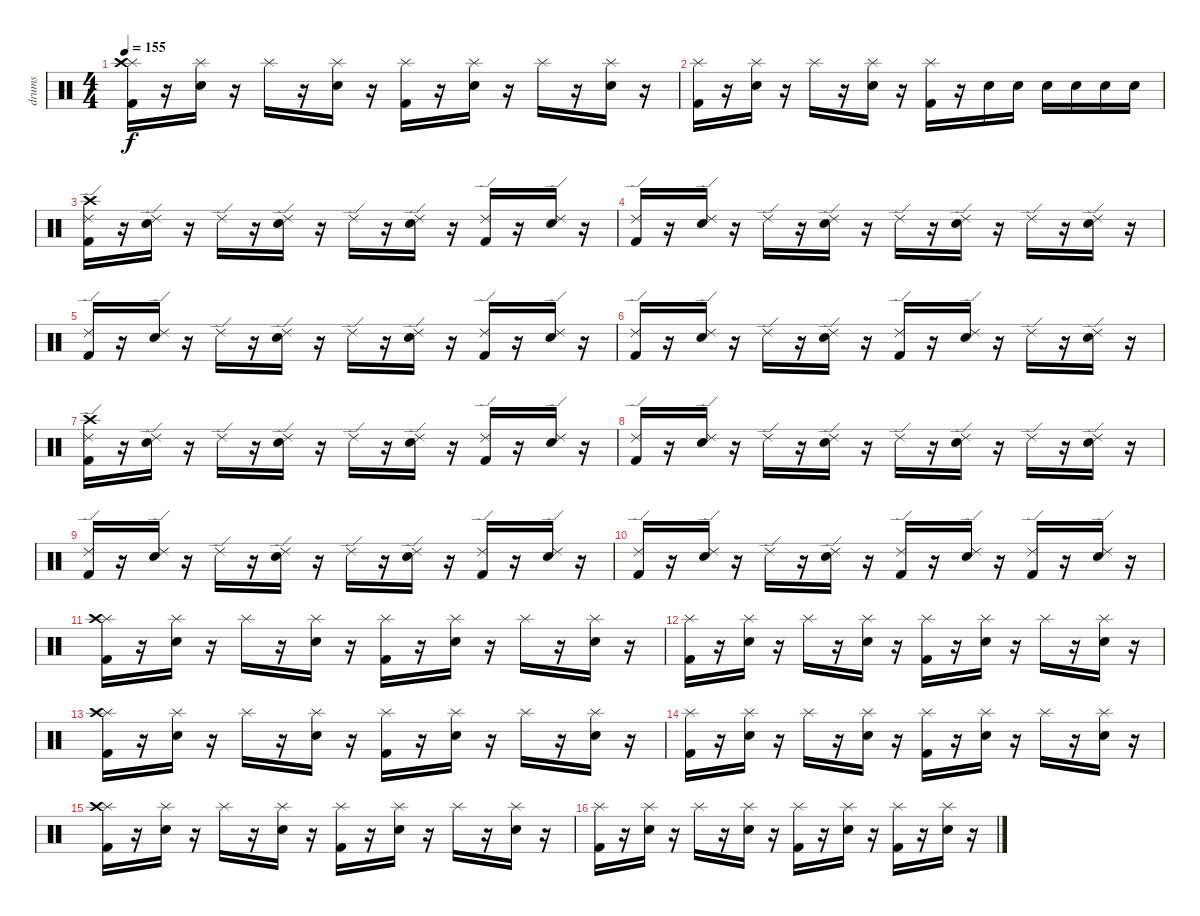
\track ("drums" "drums") {instrument percussion}
\staff {score}
\articulation defaults
\ts (4 4)
\tempo 155
\clef neutral
\ks c
("Splash (hit)" "Crash high (hit)" "Kick (hit) 2").16{dy f} r.16 ("Splash (hit)" "Snare (hit) 2").16 r.16 "Splash (hit)".16 r.16 ("Splash (hit)" "Snare (hit) 2").16 r.16 ("Splash (hit)" "Kick (hit) 2").16 r.16 ("Splash (hit)" "Snare (hit) 2").16 r.16 "Splash (hit)".16 r.16 ("Splash (hit)" "Snare (hit) 2").16 r.16 |
("Splash (hit)" "Kick (hit) 2").16 r.16 ("Splash (hit)" "Snare (hit) 2").16 r.16 "Splash (hit)".16 r.16 ("Splash (hit)" "Snare (hit) 2").16 r.16 ("Splash (hit)" "Kick (hit) 2").16 r.16 "Snare (hit) 2".16 "Snare (hit) 2".16 "Snare (hit) 2".16 "Snare (hit) 2".16 "Snare (hit) 2".16 "Snare (hit) 2".16 |
("Ride (edge) 2" "Crash high (hit)" "Kick (hit) 2").16 r.16 ("Ride (edge) 2" "Snare (hit) 2").16 r.16 "Ride (edge) 2".16 r.16 ("Ride (edge) 2" "Snare (hit) 2").16 r.16 "Ride (edge) 2".16 r.16 ("Ride (edge) 2" "Snare (hit) 2").16 r.16 ("Ride (edge) 2" "Kick (hit) 2").16 r.16 ("Ride (edge) 2" "Snare (hit) 2").16 r.16 |
("Ride (edge) 2" "Kick (hit) 2").16 r.16 ("Ride (edge) 2" "Snare (hit) 2").16 r.16 "Ride (edge) 2".16 r.16 ("Ride (edge) 2" "Snare (hit) 2").16 r.16 "Ride (edge) 2".16 r.16 ("Ride (edge) 2" "Snare (hit) 2").16 r.16 "Ride (edge) 2".16 r.16 ("Ride (edge) 2" "Snare (hit) 2").16 r.16 |
("Ride (edge) 2" "Kick (hit) 2").16 r.16 ("Ride (edge) 2" "Snare (hit) 2").16 r.16 "Ride (edge) 2".16 r.16 ("Ride (edge) 2" "Snare (hit) 2").16 r.16 "Ride (edge) 2".16 r.16 ("Ride (edge) 2" "Snare (hit) 2").16 r.16 ("Ride (edge) 2" "Kick (hit) 2").16 r.16 ("Ride (edge) 2" "Snare (hit) 2").16 r.16 |
("Ride (edge) 2" "Kick (hit) 2").16 r.16 ("Ride (edge) 2" "Snare (hit) 2").16 r.16 "Ride (edge) 2".16 r.16 ("Ride (edge) 2" "Snare (hit) 2").16 r.16 ("Ride (edge) 2" "Kick (hit) 2").16 r.16 ("Ride (edge) 2" "Snare (hit) 2").16 r.16 "Ride (edge) 2".16 r.16 ("Ride (edge) 2" "Snare (hit) 2").16 r.16 |
("Ride (edge) 2" "Crash high (hit)" "Kick (hit) 2").16 r.16 ("Ride (edge) 2" "Snare (hit) 2").16 r.16 "Ride (edge) 2".16 r.16 ("Ride (edge) 2" "Snare (hit) 2").16 r.16 "Ride (edge) 2".16 r.16 ("Ride (edge) 2" "Snare (hit) 2").16 r.16 ("Ride (edge) 2" "Kick (hit) 2").16 r.16 ("Ride (edge) 2" "Snare (hit) 2").16 r.16 |
("Ride (edge) 2" "Kick (hit) 2").16 r.16 ("Ride (edge) 2" "Snare (hit) 2").16 r.16 "Ride (edge) 2".16 r.16 ("Ride (edge) 2" "Snare (hit) 2").16 r.16 "Ride (edge) 2".16 r.16 ("Ride (edge) 2" "Snare (hit) 2").16 r.16 "Ride (edge) 2".16 r.16 ("Ride (edge) 2" "Snare (hit) 2").16 r.16 |
("Ride (edge) 2" "Kick (hit) 2").16 r.16 ("Ride (edge) 2" "Snare (hit) 2").16 r.16 "Ride (edge) 2".16 r.16 ("Ride (edge) 2" "Snare (hit) 2").16 r.16 "Ride (edge) 2".16 r.16 ("Ride (edge) 2" "Snare (hit) 2").16 r.16 ("Ride (edge) 2" "Kick (hit) 2").16 r.16 ("Ride (edge) 2" "Snare (hit) 2").16 r.16 |
("Ride (edge) 2" "Kick (hit) 2").16 r.16 ("Ride (edge) 2" "Snare (hit) 2").16 r.16 "Ride (edge) 2".16 r.16 ("Ride (edge) 2" "Snare (hit) 2").16 r.16 ("Ride (edge) 2" "Kick (hit) 2").16 r.16 ("Ride (edge) 2" "Snare (hit) 2").16 r.16 ("Ride (edge) 2" "Kick (hit) 2").16 r.16 ("Ride (edge) 2" "Snare (hit) 2").16 r.16 |
("Splash (hit)" "Crash high (hit)" "Kick (hit) 2").16 r.16 ("Splash (hit)" "Snare (hit) 2").16 r.16 "Splash (hit)".16 r.16 ("Splash (hit)" "Snare (hit) 2").16 r.16 ("Splash (hit)" "Kick (hit) 2").16 r.16 ("Splash (hit)" "Snare (hit) 2").16 r.16 "Splash (hit)".16 r.16 ("Splash (hit)" "Snare (hit) 2").16 r.16 |
("Splash (hit)" "Kick (hit) 2").16 r.16 ("Splash (hit)" "Snare (hit) 2").16 r.16 "Splash (hit)".16 r.16 ("Splash (hit)" "Snare (hit) 2").16 r.16 ("Splash (hit)" "Kick (hit) 2").16 r.16 ("Splash (hit)" "Snare (hit) 2").16 r.16 "Splash (hit)".16 r.16 ("Splash (hit)" "Snare (hit) 2").16 r.16 |
("Splash (hit)" "Crash high (hit)" "Kick (hit) 2").16 r.16 ("Splash (hit)" "Snare (hit) 2").16 r.16 "Splash (hit)".16 r.16 ("Splash (hit)" "Snare (hit) 2").16 r.16 ("Splash (hit)" "Kick (hit) 2").16 r.16 ("Splash (hit)" "Snare (hit) 2").16 r.16 "Splash (hit)".16 r.16 ("Splash (hit)" "Snare (hit) 2").16 r.16 |
("Splash (hit)" "Kick (hit) 2").16 r.16 ("Splash (hit)" "Snare (hit) 2").16 r.16 "Splash (hit)".16 r.16 ("Splash (hit)" "Snare (hit) 2").16 r.16 ("Splash (hit)" "Kick (hit) 2").16 r.16 ("Splash (hit)" "Snare (hit) 2").16 r.16 "Splash (hit)".16 r.16 ("Splash (hit)" "Snare (hit) 2").16 r.16 |
("Splash (hit)" "Crash high (hit)" "Kick (hit) 2").16 r.16 ("Splash (hit)" "Snare (hit) 2").16 r.16 "Splash (hit)".16 r.16 ("Splash (hit)" "Snare (hit) 2").16 r.16 ("Splash (hit)" "Kick (hit) 2").16 r.16 ("Splash (hit)" "Snare (hit) 2").16 r.16 "Splash (hit)".16 r.16 ("Splash (hit)" "Snare (hit) 2").16 r.16 |
("Splash (hit)" "Kick (hit) 2").16 r.16 ("Splash (hit)" "Snare (hit) 2").16 r.16 "Splash (hit)".16 r.16 ("Splash (hit)" "Snare (hit) 2").16 r.16 ("Splash (hit)" "Kick (hit) 2").16 r.16 ("Splash (hit)" "Snare (hit) 2").16 r.16 ("Splash (hit)" "Kick (hit) 2").16 r.16 ("Splash (hit)" "Snare (hit) 2").16 r.16
